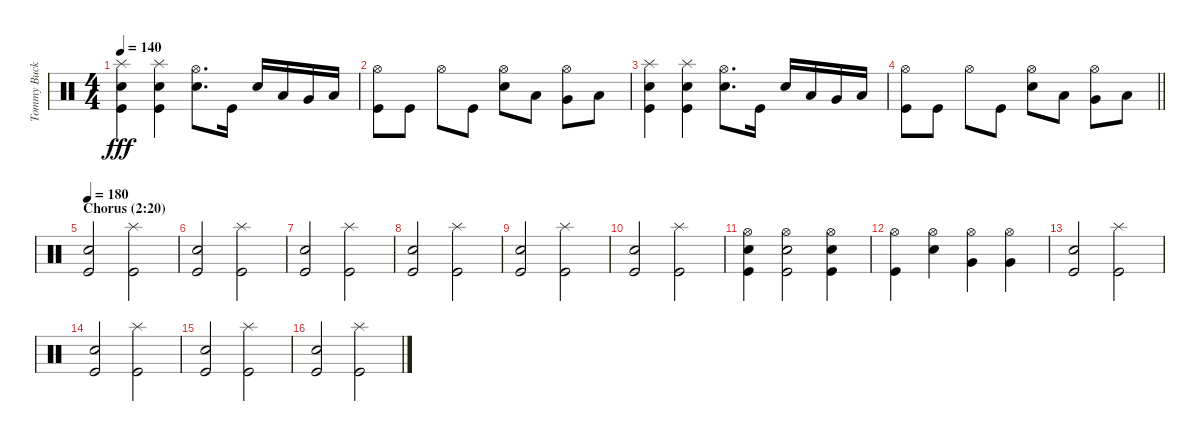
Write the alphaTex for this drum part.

\track ("Tommy Buckly (drums)" "Tommy Buck") {instrument percussion}
\staff {score}
\articulation defaults
\ts (4 4)
\tempo 140
\clef neutral
\ks c
("Splash (hit)" "Electric Snare (hit)" "Kick (hit)").4{dy fff} ("Splash (hit)" "Electric Snare (hit)" "Kick (hit)").4 ("Hi-Hat (open)" "Electric Snare (hit)").8{d} "Kick (hit)".16 "Electric Snare (hit)".16 "Low Tom (hit)".16 "Very Low Tom (hit)".16 "Low Floor Tom (hit)".16 |
("Hi-Hat (open)" "Kick (hit)").8 "Kick (hit)".8 "Hi-Hat (open)".8 "Kick (hit)".8 ("Hi-Hat (open)" "Electric Snare (hit)").8 "Low Tom (hit)".8 ("Hi-Hat (open)" "Very Low Tom (hit)").8 "Low Floor Tom (hit)".8 |
("Splash (hit)" "Electric Snare (hit)" "Kick (hit)").4 ("Splash (hit)" "Electric Snare (hit)" "Kick (hit)").4 ("Hi-Hat (open)" "Electric Snare (hit)").8{d} "Kick (hit)".16 "Electric Snare (hit)".16 "Low Tom (hit)".16 "Very Low Tom (hit)".16 "Low Floor Tom (hit)".16 |
\barLineRight lightlight
("Hi-Hat (open)" "Kick (hit)").8 "Kick (hit)".8 "Hi-Hat (open)".8 "Kick (hit)".8 ("Hi-Hat (open)" "Electric Snare (hit)").8 "Low Tom (hit)".8 ("Hi-Hat (open)" "Very Low Tom (hit)").8 "Low Floor Tom (hit)".8 |
\section ("" "Chorus (2:20)")
\tempo 180
("Electric Snare (hit)" "Kick (hit)").2 ("Splash (hit)" "Kick (hit)").2 |
("Electric Snare (hit)" "Kick (hit)").2 ("Splash (hit)" "Kick (hit)").2 |
("Electric Snare (hit)" "Kick (hit)").2 ("Splash (hit)" "Kick (hit)").2 |
("Electric Snare (hit)" "Kick (hit)").2 ("Splash (hit)" "Kick (hit)").2 |
("Electric Snare (hit)" "Kick (hit)").2 ("Splash (hit)" "Kick (hit)").2 |
("Electric Snare (hit)" "Kick (hit)").2 ("Splash (hit)" "Kick (hit)").2 |
("Hi-Hat (open)" "Electric Snare (hit)" "Kick (hit)").4 ("Hi-Hat (open)" "Electric Snare (hit)" "Kick (hit)").2 ("Hi-Hat (open)" "Electric Snare (hit)" "Kick (hit)").4 |
("Hi-Hat (open)" "Kick (hit)").4 ("Hi-Hat (open)" "Electric Snare (hit)").4 ("Hi-Hat (open)" "Very Low Tom (hit)").4 ("Hi-Hat (open)" "Very Low Tom (hit)").4 |
("Electric Snare (hit)" "Kick (hit)").2 ("Splash (hit)" "Kick (hit)").2 |
("Electric Snare (hit)" "Kick (hit)").2 ("Splash (hit)" "Kick (hit)").2 |
("Electric Snare (hit)" "Kick (hit)").2 ("Splash (hit)" "Kick (hit)").2 |
("Electric Snare (hit)" "Kick (hit)").2 ("Splash (hit)" "Kick (hit)").2
